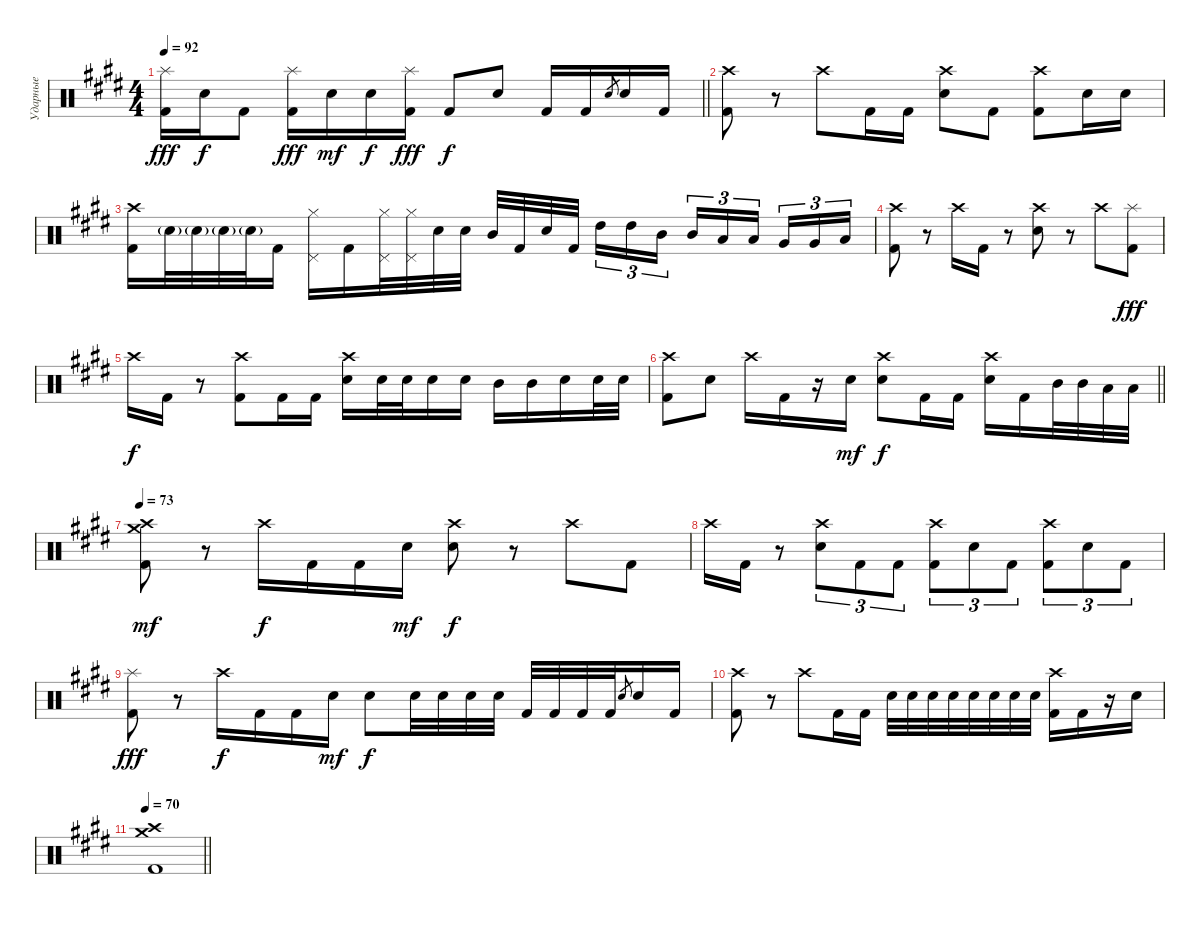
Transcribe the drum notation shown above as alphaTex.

\track ("Ударные" "Ударные") {instrument percussion}
\staff {score}
\articulation defaults
\ts (4 4)
\tempo 92
\clef neutral
\barLineRight lightlight
\ks e
("Splash (hit)" "Kick (hit) 2").16{dy fff} "Electric Snare (hit)".16{dy f} "Kick (hit) 2".8 ("Splash (hit)" "Kick (hit) 2").16{dy fff} "Electric Snare (hit)".16{dy mf} "Electric Snare (hit)".16{dy f} ("Splash (hit)" "Kick (hit) 2").16{dy fff} "Kick (hit) 2".8{dy f} "Electric Snare (hit)".8 "Kick (hit) 2".16 "Kick (hit) 2".16 "Electric Snare (hit)".8{gr} "Electric Snare (hit)".16 "Kick (hit) 2".16 |
("Crash high (hit)" "Kick (hit) 2").8 r.8 "Crash high (hit)".8 "Kick (hit) 2".16 "Kick (hit) 2".16 ("Crash high (hit)" "Electric Snare (hit)").8 "Kick (hit) 2".8 ("Crash high (hit)" "Kick (hit) 2").8 "Electric Snare (hit)".16 "Electric Snare (hit)".16 |
("Crash high (hit)" "Kick (hit) 2").16 "Electric Snare (hit)"{g}.32 "Electric Snare (hit)"{g}.32 "Electric Snare (hit)"{g}.32 "Electric Snare (hit)"{g}.32 "Kick (hit) 2".16 ("Pedal Hi-Hat (hit)" "Hi-Hat (closed)").16 "Kick (hit) 2".16 ("Pedal Hi-Hat (hit)" "Hi-Hat (closed)").32 ("Pedal Hi-Hat (hit)" "Hi-Hat (closed)").32 "Electric Snare (hit)".32 "Electric Snare (hit)".32 "Mid Tom (hit)".32 "Kick (hit) 2".32 "Electric Snare (hit)".32 "Kick (hit) 2".32{beam splitsecondary} "High Tom (hit)".16{tu (3 2)} "High Tom (hit)".16{tu (3 2)} "Mid Tom (hit)".16{tu (3 2)} "Mid Tom (hit)".16{tu (3 2)} "Low Tom (hit)".16{tu (3 2)} "Low Tom (hit)".16{tu (3 2) beam splitsecondary} "Very Low Tom (hit)".16{tu (3 2)} "Very Low Tom (hit)".16{tu (3 2)} "Low Floor Tom (hit)".16{tu (3 2)} |
("Crash high (hit)" "Kick (hit) 2").8 r.8 "Crash high (hit)".16 "Kick (hit) 2".16 r.8 ("Crash high (hit)" "Electric Snare (hit)").8 r.8 "Crash high (hit)".8 ("Splash (hit)" "Kick (hit) 2").8{dy fff} |
"Crash high (hit)".16{dy f} "Kick (hit) 2".16 r.8 ("Crash high (hit)" "Kick (hit) 2").8 "Kick (hit) 2".16 "Kick (hit) 2".16 ("Crash high (hit)" "Electric Snare (hit)").16 "Electric Snare (hit)".32 "Electric Snare (hit)".32 "Electric Snare (hit)".16 "Electric Snare (hit)".16 "Mid Tom (hit)".16 "Mid Tom (hit)".16 "Electric Snare (hit)".16 "Electric Snare (hit)".32 "Electric Snare (hit)".32 |
\barLineRight lightlight
("Crash high (hit)" "Kick (hit) 2").8 "Electric Snare (hit)".8 "Crash high (hit)".16 "Kick (hit) 2".16 r.16 "Electric Snare (hit)".16{dy mf} ("Crash high (hit)" "Electric Snare (hit)").8{dy f} "Kick (hit) 2".16 "Kick (hit) 2".16 ("Crash high (hit)" "Electric Snare (hit)").16 "Kick (hit) 2".16 "Mid Tom (hit)".32 "Mid Tom (hit)".32 "Low Tom (hit)".32 "Low Tom (hit)".32 |
\tempo 73
("Crash high (hit)" "Crash medium (hit)" "Kick (hit) 2").8{dy mf} r.8 "Crash high (hit)".16{dy f} "Kick (hit) 2".16 "Kick (hit) 2".16 "Electric Snare (hit)".16{dy mf} ("Crash high (hit)" "Electric Snare (hit)").8{dy f} r.8 "Crash high (hit)".8 "Kick (hit) 2".8 |
"Crash high (hit)".16 "Kick (hit) 2".16 r.8 ("Crash high (hit)" "Electric Snare (hit)").8{tu (3 2)} "Kick (hit) 2".8{tu (3 2)} "Kick (hit) 2".8{tu (3 2)} ("Crash high (hit)" "Kick (hit) 2").8{tu (3 2)} "Electric Snare (hit)".8{tu (3 2)} "Kick (hit) 2".8{tu (3 2)} ("Crash high (hit)" "Kick (hit) 2").8{tu (3 2)} "Electric Snare (hit)".8{tu (3 2)} "Kick (hit) 2".8{tu (3 2)} |
("Splash (hit)" "Kick (hit) 2").8{dy fff} r.8 "Crash high (hit)".16{dy f} "Kick (hit) 2".16 "Kick (hit) 2".16 "Electric Snare (hit)".16{dy mf} "Electric Snare (hit)".8{dy f} "Electric Snare (hit)".32 "Electric Snare (hit)".32 "Electric Snare (hit)".32 "Electric Snare (hit)".32 "Kick (hit) 2".32 "Kick (hit) 2".32 "Kick (hit) 2".32 "Kick (hit) 2".32 "Electric Snare (hit)".8{gr} "Electric Snare (hit)".16 "Kick (hit) 2".16 |
("Crash high (hit)" "Kick (hit) 2").8 r.8 "Crash high (hit)".8 "Kick (hit) 2".16 "Kick (hit) 2".16 "Electric Snare (hit)".32 "Electric Snare (hit)".32 "Electric Snare (hit)".32 "Electric Snare (hit)".32 "Electric Snare (hit)".32 "Electric Snare (hit)".32 "Electric Snare (hit)".32 "Electric Snare (hit)".32 ("Crash high (hit)" "Kick (hit) 2").16 "Kick (hit) 2".16 r.16 "Electric Snare (hit)".16 |
\tempo 70
\barLineRight lightlight
("Crash high (hit)" "Crash medium (hit)" "Kick (hit) 2").1
